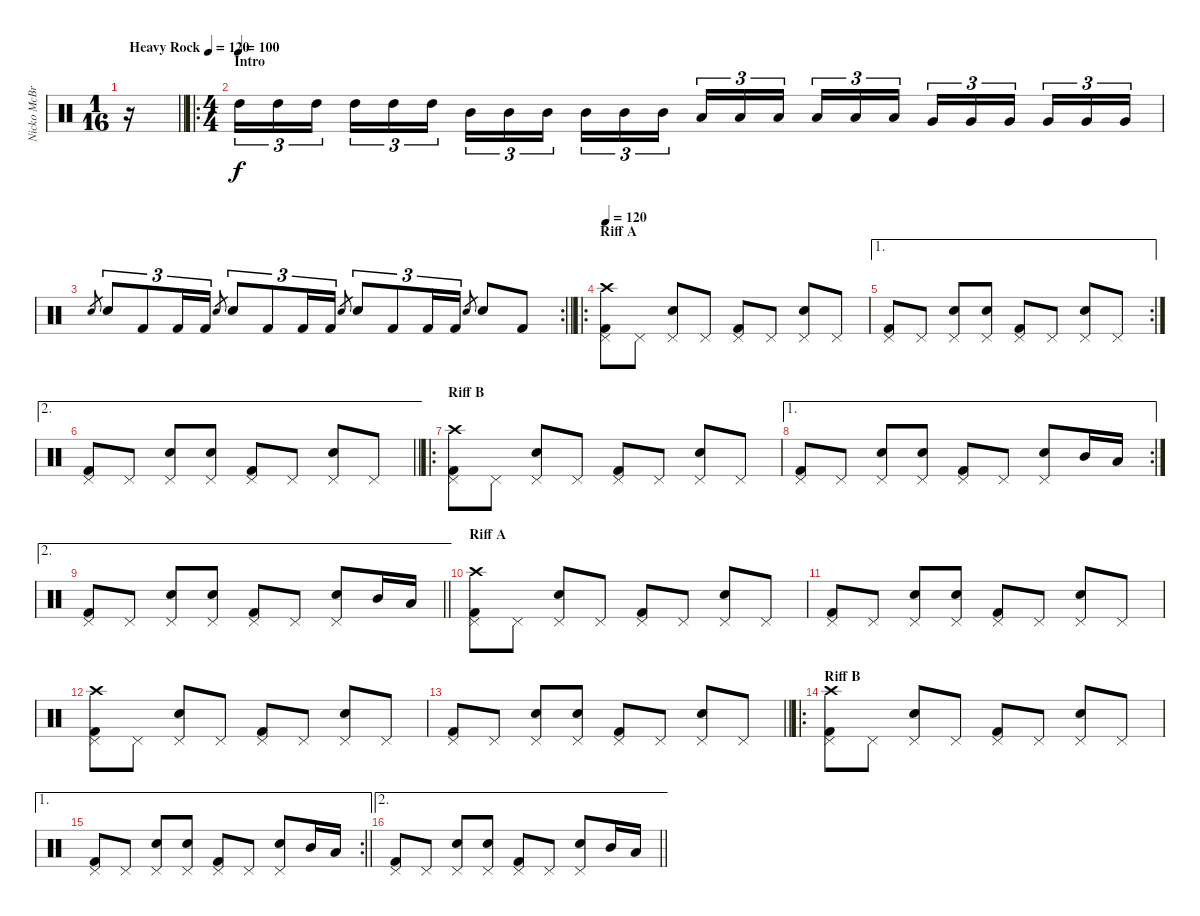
\track ("Nicko McBrain" "Nicko McBr") {instrument percussion}
\staff {score}
\articulation defaults
\ts (1 16)
\tempo (120 "Heavy Rock")
\clef neutral
\barLineRight lightlight
\ks c
r.16{dy f} |
\ro
\ts (4 4)
\section ("" "Intro")
\tempo (100)
"High Tom (hit)".16{tu (3 2)} "High Tom (hit)".16{tu (3 2)} "High Tom (hit)".16{tu (3 2) beam splitsecondary} "High Tom (hit)".16{tu (3 2)} "High Tom (hit)".16{tu (3 2)} "High Tom (hit)".16{tu (3 2)} "Mid Tom (hit)".16{tu (3 2)} "Mid Tom (hit)".16{tu (3 2)} "Mid Tom (hit)".16{tu (3 2) beam splitsecondary} "Mid Tom (hit)".16{tu (3 2)} "Mid Tom (hit)".16{tu (3 2)} "Mid Tom (hit)".16{tu (3 2)} "Low Tom (hit)".16{tu (3 2)} "Low Tom (hit)".16{tu (3 2)} "Low Tom (hit)".16{tu (3 2) beam splitsecondary} "Low Tom (hit)".16{tu (3 2)} "Low Tom (hit)".16{tu (3 2)} "Low Tom (hit)".16{tu (3 2)} "Very Low Tom (hit)".16{tu (3 2)} "Very Low Tom (hit)".16{tu (3 2)} "Very Low Tom (hit)".16{tu (3 2) beam splitsecondary} "Very Low Tom (hit)".16{tu (3 2)} "Very Low Tom (hit)".16{tu (3 2)} "Very Low Tom (hit)".16{tu (3 2)} |
\rc 2
\barLineRight lightlight "Snare (hit) 2".8{gr} "Snare (hit) 2".8{tu (3 2)} "Kick (hit) 2".8{tu (3 2)} "Kick (hit) 2".16{tu (3 2)} "Kick (hit) 2".16{tu (3 2)} "Snare (hit) 2".8{gr} "Snare (hit) 2".8{tu (3 2)} "Kick (hit) 2".8{tu (3 2)} "Kick (hit) 2".16{tu (3 2)} "Kick (hit) 2".16{tu (3 2)} "Snare (hit) 2".8{gr} "Snare (hit) 2".8{tu (3 2)} "Kick (hit) 2".8{tu (3 2)} "Kick (hit) 2".16{tu (3 2)} "Kick (hit) 2".16{tu (3 2)} "Snare (hit) 2".8{gr} "Snare (hit) 2".8 "Kick (hit) 2".8
|
\ro
\section ("" "Riff A")
\tempo 120
("Kick (hit) 2" "Pedal Hi-Hat (hit)" "Crash high (hit)").8 "Pedal Hi-Hat (hit)".8 ("Snare (hit) 2" "Pedal Hi-Hat (hit)").8 "Pedal Hi-Hat (hit)".8 ("Kick (hit) 2" "Pedal Hi-Hat (hit)").8 "Pedal Hi-Hat (hit)".8 ("Snare (hit) 2" "Pedal Hi-Hat (hit)").8 "Pedal Hi-Hat (hit)".8 |
\ae 1
\rc 2
("Kick (hit) 2" "Pedal Hi-Hat (hit)").8 "Pedal Hi-Hat (hit)".8 ("Snare (hit) 2" "Pedal Hi-Hat (hit)").8 ("Snare (hit) 2" "Pedal Hi-Hat (hit)").8 ("Kick (hit) 2" "Pedal Hi-Hat (hit)").8 "Pedal Hi-Hat (hit)".8 ("Snare (hit) 2" "Pedal Hi-Hat (hit)").8 "Pedal Hi-Hat (hit)".8 |
\ae 2
\barLineRight lightlight
("Kick (hit) 2" "Pedal Hi-Hat (hit)").8 "Pedal Hi-Hat (hit)".8 ("Snare (hit) 2" "Pedal Hi-Hat (hit)").8 ("Snare (hit) 2" "Pedal Hi-Hat (hit)").8 ("Kick (hit) 2" "Pedal Hi-Hat (hit)").8 "Pedal Hi-Hat (hit)".8 ("Snare (hit) 2" "Pedal Hi-Hat (hit)").8 "Pedal Hi-Hat (hit)".8 |
\ro
\section ("" "Riff B")
("Kick (hit) 2" "Pedal Hi-Hat (hit)" "Crash high (hit)").8 "Pedal Hi-Hat (hit)".8 ("Snare (hit) 2" "Pedal Hi-Hat (hit)").8 "Pedal Hi-Hat (hit)".8 ("Kick (hit) 2" "Pedal Hi-Hat (hit)").8 "Pedal Hi-Hat (hit)".8 ("Snare (hit) 2" "Pedal Hi-Hat (hit)").8 "Pedal Hi-Hat (hit)".8 |
\ae 1
\rc 2
("Kick (hit) 2" "Pedal Hi-Hat (hit)").8 "Pedal Hi-Hat (hit)".8 ("Snare (hit) 2" "Pedal Hi-Hat (hit)").8 ("Snare (hit) 2" "Pedal Hi-Hat (hit)").8 ("Kick (hit) 2" "Pedal Hi-Hat (hit)").8 "Pedal Hi-Hat (hit)".8 ("Snare (hit) 2" "Pedal Hi-Hat (hit)").8 "Mid Tom (hit)".16 "Low Tom (hit)".16 |
\ae 2
\barLineRight lightlight
("Kick (hit) 2" "Pedal Hi-Hat (hit)").8 "Pedal Hi-Hat (hit)".8 ("Snare (hit) 2" "Pedal Hi-Hat (hit)").8 ("Snare (hit) 2" "Pedal Hi-Hat (hit)").8 ("Kick (hit) 2" "Pedal Hi-Hat (hit)").8 "Pedal Hi-Hat (hit)".8 ("Snare (hit) 2" "Pedal Hi-Hat (hit)").8 "Mid Tom (hit)".16 "Low Tom (hit)".16 |
\section ("" "Riff A")
("Kick (hit) 2" "Pedal Hi-Hat (hit)" "Crash high (hit)").8 "Pedal Hi-Hat (hit)".8 ("Snare (hit) 2" "Pedal Hi-Hat (hit)").8 "Pedal Hi-Hat (hit)".8 ("Kick (hit) 2" "Pedal Hi-Hat (hit)").8 "Pedal Hi-Hat (hit)".8 ("Snare (hit) 2" "Pedal Hi-Hat (hit)").8 "Pedal Hi-Hat (hit)".8 |
("Kick (hit) 2" "Pedal Hi-Hat (hit)").8 "Pedal Hi-Hat (hit)".8 ("Snare (hit) 2" "Pedal Hi-Hat (hit)").8 ("Snare (hit) 2" "Pedal Hi-Hat (hit)").8 ("Kick (hit) 2" "Pedal Hi-Hat (hit)").8 "Pedal Hi-Hat (hit)".8 ("Snare (hit) 2" "Pedal Hi-Hat (hit)").8 "Pedal Hi-Hat (hit)".8 |
("Kick (hit) 2" "Pedal Hi-Hat (hit)" "Crash high (hit)").8 "Pedal Hi-Hat (hit)".8 ("Snare (hit) 2" "Pedal Hi-Hat (hit)").8 "Pedal Hi-Hat (hit)".8 ("Kick (hit) 2" "Pedal Hi-Hat (hit)").8 "Pedal Hi-Hat (hit)".8 ("Snare (hit) 2" "Pedal Hi-Hat (hit)").8 "Pedal Hi-Hat (hit)".8 |
\barLineRight lightlight
("Kick (hit) 2" "Pedal Hi-Hat (hit)").8 "Pedal Hi-Hat (hit)".8 ("Snare (hit) 2" "Pedal Hi-Hat (hit)").8 ("Snare (hit) 2" "Pedal Hi-Hat (hit)").8 ("Kick (hit) 2" "Pedal Hi-Hat (hit)").8 "Pedal Hi-Hat (hit)".8 ("Snare (hit) 2" "Pedal Hi-Hat (hit)").8 "Pedal Hi-Hat (hit)".8 |
\ro
\section ("" "Riff B")
("Kick (hit) 2" "Pedal Hi-Hat (hit)" "Crash high (hit)").8 "Pedal Hi-Hat (hit)".8 ("Snare (hit) 2" "Pedal Hi-Hat (hit)").8 "Pedal Hi-Hat (hit)".8 ("Kick (hit) 2" "Pedal Hi-Hat (hit)").8 "Pedal Hi-Hat (hit)".8 ("Snare (hit) 2" "Pedal Hi-Hat (hit)").8 "Pedal Hi-Hat (hit)".8 |
\ae 1
\rc 2
\barLineRight lightlight
("Kick (hit) 2" "Pedal Hi-Hat (hit)").8 "Pedal Hi-Hat (hit)".8 ("Snare (hit) 2" "Pedal Hi-Hat (hit)").8 ("Snare (hit) 2" "Pedal Hi-Hat (hit)").8 ("Kick (hit) 2" "Pedal Hi-Hat (hit)").8 "Pedal Hi-Hat (hit)".8 ("Snare (hit) 2" "Pedal Hi-Hat (hit)").8 "Mid Tom (hit)".16 "Low Tom (hit)".16 |
\ae 2
\barLineRight lightlight
("Kick (hit) 2" "Pedal Hi-Hat (hit)").8 "Pedal Hi-Hat (hit)".8 ("Snare (hit) 2" "Pedal Hi-Hat (hit)").8 ("Snare (hit) 2" "Pedal Hi-Hat (hit)").8 ("Kick (hit) 2" "Pedal Hi-Hat (hit)").8 "Pedal Hi-Hat (hit)".8 ("Snare (hit) 2" "Pedal Hi-Hat (hit)").8 "Mid Tom (hit)".16 "Low Tom (hit)".16
